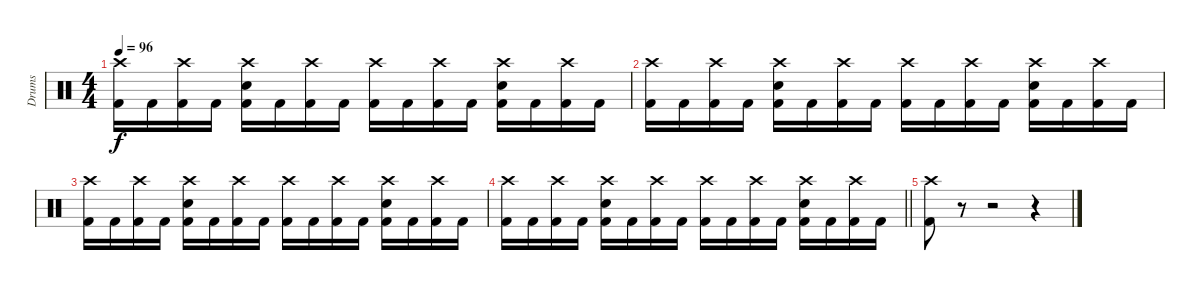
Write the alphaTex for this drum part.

\track ("Drums" "Drums") {instrument percussion}
\staff {score}
\articulation defaults
\ts (4 4)
\tempo 96
\clef neutral
\ks c
("Crash high (hit)" "Kick (hit) 2").16{dy f} "Kick (hit) 2".16 ("Crash high (hit)" "Kick (hit) 2").16 "Kick (hit) 2".16 ("Crash high (hit)" "Snare (hit) 2" "Kick (hit) 2").16 "Kick (hit) 2".16 ("Crash high (hit)" "Kick (hit) 2").16 "Kick (hit) 2".16 ("Crash high (hit)" "Kick (hit) 2").16 "Kick (hit) 2".16 ("Crash high (hit)" "Kick (hit) 2").16 "Kick (hit) 2".16 ("Crash high (hit)" "Snare (hit) 2" "Kick (hit) 2").16 "Kick (hit) 2".16 ("Crash high (hit)" "Kick (hit) 2").16 "Kick (hit) 2".16 |
("Crash high (hit)" "Kick (hit) 2").16 "Kick (hit) 2".16 ("Crash high (hit)" "Kick (hit) 2").16 "Kick (hit) 2".16 ("Crash high (hit)" "Snare (hit) 2" "Kick (hit) 2").16 "Kick (hit) 2".16 ("Crash high (hit)" "Kick (hit) 2").16 "Kick (hit) 2".16 ("Crash high (hit)" "Kick (hit) 2").16 "Kick (hit) 2".16 ("Crash high (hit)" "Kick (hit) 2").16 "Kick (hit) 2".16 ("Crash high (hit)" "Snare (hit) 2" "Kick (hit) 2").16 "Kick (hit) 2".16 ("Crash high (hit)" "Kick (hit) 2").16 "Kick (hit) 2".16 |
("Crash high (hit)" "Kick (hit) 2").16 "Kick (hit) 2".16 ("Crash high (hit)" "Kick (hit) 2").16 "Kick (hit) 2".16 ("Crash high (hit)" "Snare (hit) 2" "Kick (hit) 2").16 "Kick (hit) 2".16 ("Crash high (hit)" "Kick (hit) 2").16 "Kick (hit) 2".16 ("Crash high (hit)" "Kick (hit) 2").16 "Kick (hit) 2".16 ("Crash high (hit)" "Kick (hit) 2").16 "Kick (hit) 2".16 ("Crash high (hit)" "Snare (hit) 2" "Kick (hit) 2").16 "Kick (hit) 2".16 ("Crash high (hit)" "Kick (hit) 2").16 "Kick (hit) 2".16 |
\barLineRight lightlight
("Crash high (hit)" "Kick (hit) 2").16 "Kick (hit) 2".16 ("Crash high (hit)" "Kick (hit) 2").16 "Kick (hit) 2".16 ("Crash high (hit)" "Snare (hit) 2" "Kick (hit) 2").16 "Kick (hit) 2".16 ("Crash high (hit)" "Kick (hit) 2").16 "Kick (hit) 2".16 ("Crash high (hit)" "Kick (hit) 2").16 "Kick (hit) 2".16 ("Crash high (hit)" "Kick (hit) 2").16 "Kick (hit) 2".16 ("Crash high (hit)" "Snare (hit) 2" "Kick (hit) 2").16 "Kick (hit) 2".16 ("Crash high (hit)" "Kick (hit) 2").16 "Kick (hit) 2".16 |
("Crash high (hit)" "Kick (hit) 2").8 r.8 r.2 r.4
